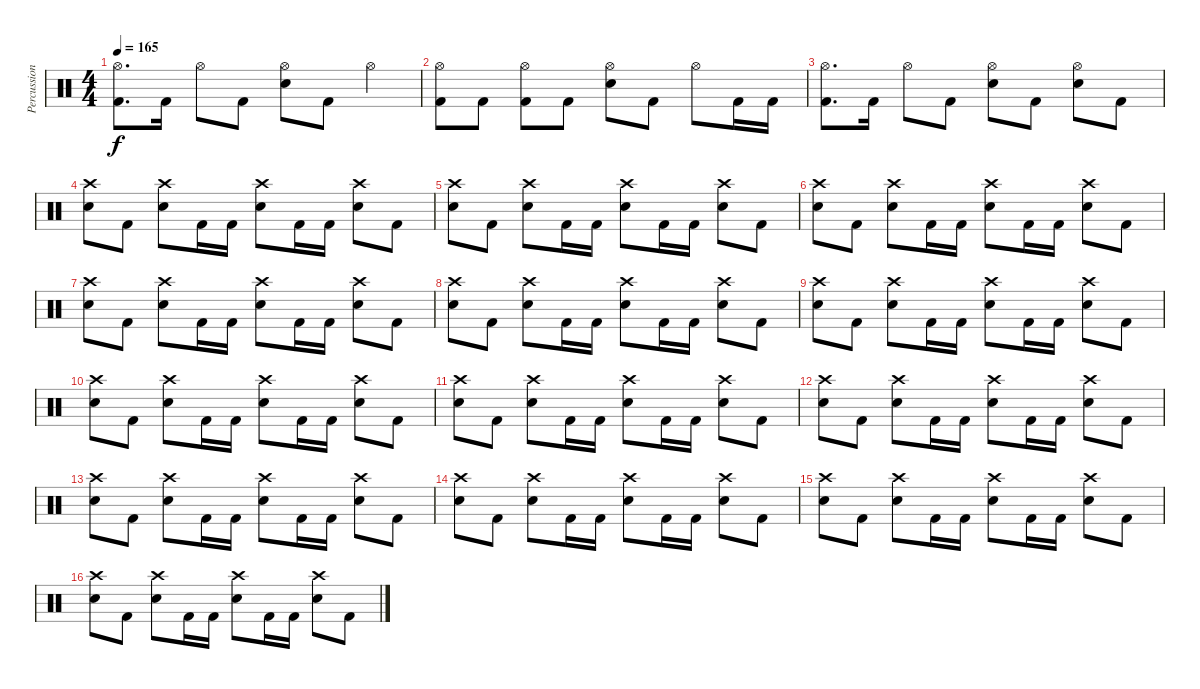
\track ("Percussion" "Percussion") {instrument percussion}
\staff {score}
\articulation defaults
\ts (4 4)
\tempo 165
\clef neutral
\ks c
("Hi-Hat (open)" "Kick (hit) 2").8{d dy f} "Kick (hit) 2".16 "Hi-Hat (open)".8 "Kick (hit) 2".8 ("Hi-Hat (open)" "Electric Snare (hit)").8 "Kick (hit) 2".8 "Hi-Hat (open)".4 |
("Hi-Hat (open)" "Kick (hit) 2").8 "Kick (hit) 2".8 ("Hi-Hat (open)" "Kick (hit) 2").8 "Kick (hit) 2".8 ("Hi-Hat (open)" "Electric Snare (hit)").8 "Kick (hit) 2".8 "Hi-Hat (open)".8 "Kick (hit) 2".16 "Kick (hit) 2".16 |
("Hi-Hat (open)" "Kick (hit) 2").8{d} "Kick (hit) 2".16 "Hi-Hat (open)".8 "Kick (hit) 2".8 ("Hi-Hat (open)" "Electric Snare (hit)").8 "Kick (hit) 2".8 ("Hi-Hat (open)" "Electric Snare (hit)").8 "Kick (hit) 2".8 |
("Crash high (hit)" "Electric Snare (hit)").8 "Kick (hit) 2".8 ("Crash high (hit)" "Electric Snare (hit)").8 "Kick (hit) 2".16 "Kick (hit) 2".16 ("Crash high (hit)" "Electric Snare (hit)").8 "Kick (hit) 2".16 "Kick (hit) 2".16 ("Crash high (hit)" "Electric Snare (hit)").8 "Kick (hit) 2".8 |
("Crash high (hit)" "Electric Snare (hit)").8 "Kick (hit) 2".8 ("Crash high (hit)" "Electric Snare (hit)").8 "Kick (hit) 2".16 "Kick (hit) 2".16 ("Crash high (hit)" "Electric Snare (hit)").8 "Kick (hit) 2".16 "Kick (hit) 2".16 ("Crash high (hit)" "Electric Snare (hit)").8 "Kick (hit) 2".8 |
("Crash high (hit)" "Electric Snare (hit)").8 "Kick (hit) 2".8 ("Crash high (hit)" "Electric Snare (hit)").8 "Kick (hit) 2".16 "Kick (hit) 2".16 ("Crash high (hit)" "Electric Snare (hit)").8 "Kick (hit) 2".16 "Kick (hit) 2".16 ("Crash high (hit)" "Electric Snare (hit)").8 "Kick (hit) 2".8 |
("Crash high (hit)" "Electric Snare (hit)").8 "Kick (hit) 2".8 ("Crash high (hit)" "Electric Snare (hit)").8 "Kick (hit) 2".16 "Kick (hit) 2".16 ("Crash high (hit)" "Electric Snare (hit)").8 "Kick (hit) 2".16 "Kick (hit) 2".16 ("Crash high (hit)" "Electric Snare (hit)").8 "Kick (hit) 2".8 |
("Crash high (hit)" "Electric Snare (hit)").8 "Kick (hit) 2".8 ("Crash high (hit)" "Electric Snare (hit)").8 "Kick (hit) 2".16 "Kick (hit) 2".16 ("Crash high (hit)" "Electric Snare (hit)").8 "Kick (hit) 2".16 "Kick (hit) 2".16 ("Crash high (hit)" "Electric Snare (hit)").8 "Kick (hit) 2".8 |
("Crash high (hit)" "Electric Snare (hit)").8 "Kick (hit) 2".8 ("Crash high (hit)" "Electric Snare (hit)").8 "Kick (hit) 2".16 "Kick (hit) 2".16 ("Crash high (hit)" "Electric Snare (hit)").8 "Kick (hit) 2".16 "Kick (hit) 2".16 ("Crash high (hit)" "Electric Snare (hit)").8 "Kick (hit) 2".8 |
("Crash high (hit)" "Electric Snare (hit)").8 "Kick (hit) 2".8 ("Crash high (hit)" "Electric Snare (hit)").8 "Kick (hit) 2".16 "Kick (hit) 2".16 ("Crash high (hit)" "Electric Snare (hit)").8 "Kick (hit) 2".16 "Kick (hit) 2".16 ("Crash high (hit)" "Electric Snare (hit)").8 "Kick (hit) 2".8 |
("Crash high (hit)" "Electric Snare (hit)").8 "Kick (hit) 2".8 ("Crash high (hit)" "Electric Snare (hit)").8 "Kick (hit) 2".16 "Kick (hit) 2".16 ("Crash high (hit)" "Electric Snare (hit)").8 "Kick (hit) 2".16 "Kick (hit) 2".16 ("Crash high (hit)" "Electric Snare (hit)").8 "Kick (hit) 2".8 |
("Crash high (hit)" "Electric Snare (hit)").8 "Kick (hit) 2".8 ("Crash high (hit)" "Electric Snare (hit)").8 "Kick (hit) 2".16 "Kick (hit) 2".16 ("Crash high (hit)" "Electric Snare (hit)").8 "Kick (hit) 2".16 "Kick (hit) 2".16 ("Crash high (hit)" "Electric Snare (hit)").8 "Kick (hit) 2".8 |
("Crash high (hit)" "Electric Snare (hit)").8 "Kick (hit) 2".8 ("Crash high (hit)" "Electric Snare (hit)").8 "Kick (hit) 2".16 "Kick (hit) 2".16 ("Crash high (hit)" "Electric Snare (hit)").8 "Kick (hit) 2".16 "Kick (hit) 2".16 ("Crash high (hit)" "Electric Snare (hit)").8 "Kick (hit) 2".8 |
("Crash high (hit)" "Electric Snare (hit)").8 "Kick (hit) 2".8 ("Crash high (hit)" "Electric Snare (hit)").8 "Kick (hit) 2".16 "Kick (hit) 2".16 ("Crash high (hit)" "Electric Snare (hit)").8 "Kick (hit) 2".16 "Kick (hit) 2".16 ("Crash high (hit)" "Electric Snare (hit)").8 "Kick (hit) 2".8 |
("Crash high (hit)" "Electric Snare (hit)").8 "Kick (hit) 2".8 ("Crash high (hit)" "Electric Snare (hit)").8 "Kick (hit) 2".16 "Kick (hit) 2".16 ("Crash high (hit)" "Electric Snare (hit)").8 "Kick (hit) 2".16 "Kick (hit) 2".16 ("Crash high (hit)" "Electric Snare (hit)").8 "Kick (hit) 2".8 |
("Crash high (hit)" "Electric Snare (hit)").8 "Kick (hit) 2".8 ("Crash high (hit)" "Electric Snare (hit)").8 "Kick (hit) 2".16 "Kick (hit) 2".16 ("Crash high (hit)" "Electric Snare (hit)").8 "Kick (hit) 2".16 "Kick (hit) 2".16 ("Crash high (hit)" "Electric Snare (hit)").8 "Kick (hit) 2".8
